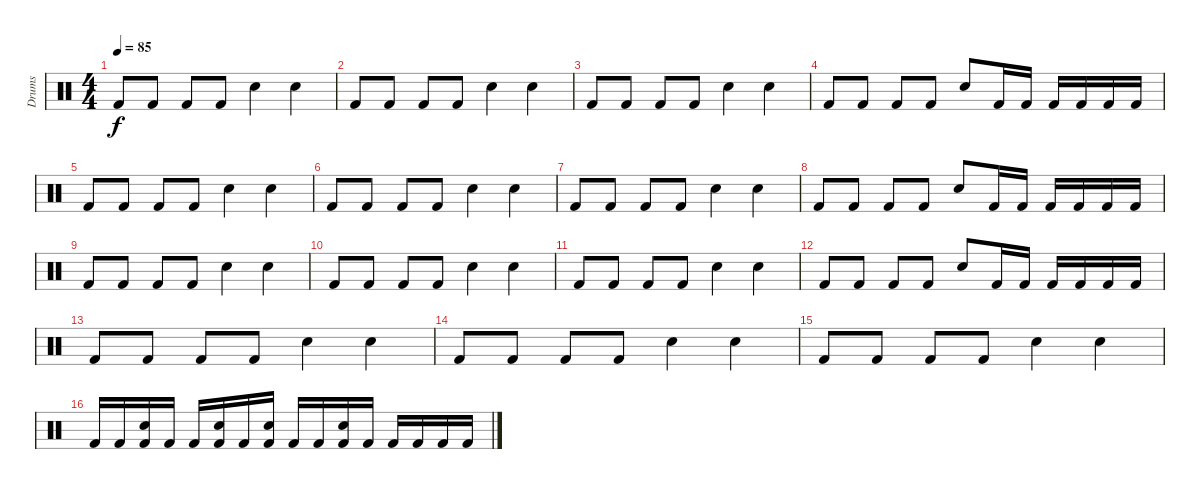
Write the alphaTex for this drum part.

\track ("Drums" "Drums") {instrument percussion}
\staff {score}
\articulation defaults
\ts (4 4)
\tempo 85
\clef neutral
\ks c "Kick (hit) 2".8{dy f} "Kick (hit) 2".8 "Kick (hit) 2".8 "Kick (hit) 2".8 "Snare (hit) 2".4 "Snare (hit) 2".4
|
"Kick (hit) 2".8 "Kick (hit) 2".8 "Kick (hit) 2".8 "Kick (hit) 2".8 "Snare (hit) 2".4 "Snare (hit) 2".4 |
"Kick (hit) 2".8 "Kick (hit) 2".8 "Kick (hit) 2".8 "Kick (hit) 2".8 "Snare (hit) 2".4 "Snare (hit) 2".4 |
"Kick (hit) 2".8 "Kick (hit) 2".8 "Kick (hit) 2".8 "Kick (hit) 2".8 "Snare (hit) 2".8 "Kick (hit) 2".16 "Kick (hit) 2".16 "Kick (hit) 2".16 "Kick (hit) 2".16 "Kick (hit) 2".16 "Kick (hit) 2".16 |
"Kick (hit) 2".8 "Kick (hit) 2".8 "Kick (hit) 2".8 "Kick (hit) 2".8 "Snare (hit) 2".4 "Snare (hit) 2".4 |
"Kick (hit) 2".8 "Kick (hit) 2".8 "Kick (hit) 2".8 "Kick (hit) 2".8 "Snare (hit) 2".4 "Snare (hit) 2".4 |
"Kick (hit) 2".8 "Kick (hit) 2".8 "Kick (hit) 2".8 "Kick (hit) 2".8 "Snare (hit) 2".4 "Snare (hit) 2".4 |
"Kick (hit) 2".8 "Kick (hit) 2".8 "Kick (hit) 2".8 "Kick (hit) 2".8 "Snare (hit) 2".8 "Kick (hit) 2".16 "Kick (hit) 2".16 "Kick (hit) 2".16 "Kick (hit) 2".16 "Kick (hit) 2".16 "Kick (hit) 2".16 |
"Kick (hit) 2".8 "Kick (hit) 2".8 "Kick (hit) 2".8 "Kick (hit) 2".8 "Snare (hit) 2".4 "Snare (hit) 2".4 |
"Kick (hit) 2".8 "Kick (hit) 2".8 "Kick (hit) 2".8 "Kick (hit) 2".8 "Snare (hit) 2".4 "Snare (hit) 2".4 |
"Kick (hit) 2".8 "Kick (hit) 2".8 "Kick (hit) 2".8 "Kick (hit) 2".8 "Snare (hit) 2".4 "Snare (hit) 2".4 |
"Kick (hit) 2".8 "Kick (hit) 2".8 "Kick (hit) 2".8 "Kick (hit) 2".8 "Snare (hit) 2".8 "Kick (hit) 2".16 "Kick (hit) 2".16 "Kick (hit) 2".16 "Kick (hit) 2".16 "Kick (hit) 2".16 "Kick (hit) 2".16 |
"Kick (hit) 2".8 "Kick (hit) 2".8 "Kick (hit) 2".8 "Kick (hit) 2".8 "Snare (hit) 2".4 "Snare (hit) 2".4 |
"Kick (hit) 2".8 "Kick (hit) 2".8 "Kick (hit) 2".8 "Kick (hit) 2".8 "Snare (hit) 2".4 "Snare (hit) 2".4 |
"Kick (hit) 2".8 "Kick (hit) 2".8 "Kick (hit) 2".8 "Kick (hit) 2".8 "Snare (hit) 2".4 "Snare (hit) 2".4 |
"Kick (hit) 2".16 "Kick (hit) 2".16 ("Kick (hit) 2" "Snare (hit) 2").16 "Kick (hit) 2".16 "Kick (hit) 2".16 ("Kick (hit) 2" "Snare (hit) 2").16 "Kick (hit) 2".16 ("Kick (hit) 2" "Snare (hit) 2").16 "Kick (hit) 2".16 "Kick (hit) 2".16 ("Kick (hit) 2" "Snare (hit) 2").16 "Kick (hit) 2".16 "Kick (hit) 2".16 "Kick (hit) 2".16 "Kick (hit) 2".16 "Kick (hit) 2".16
